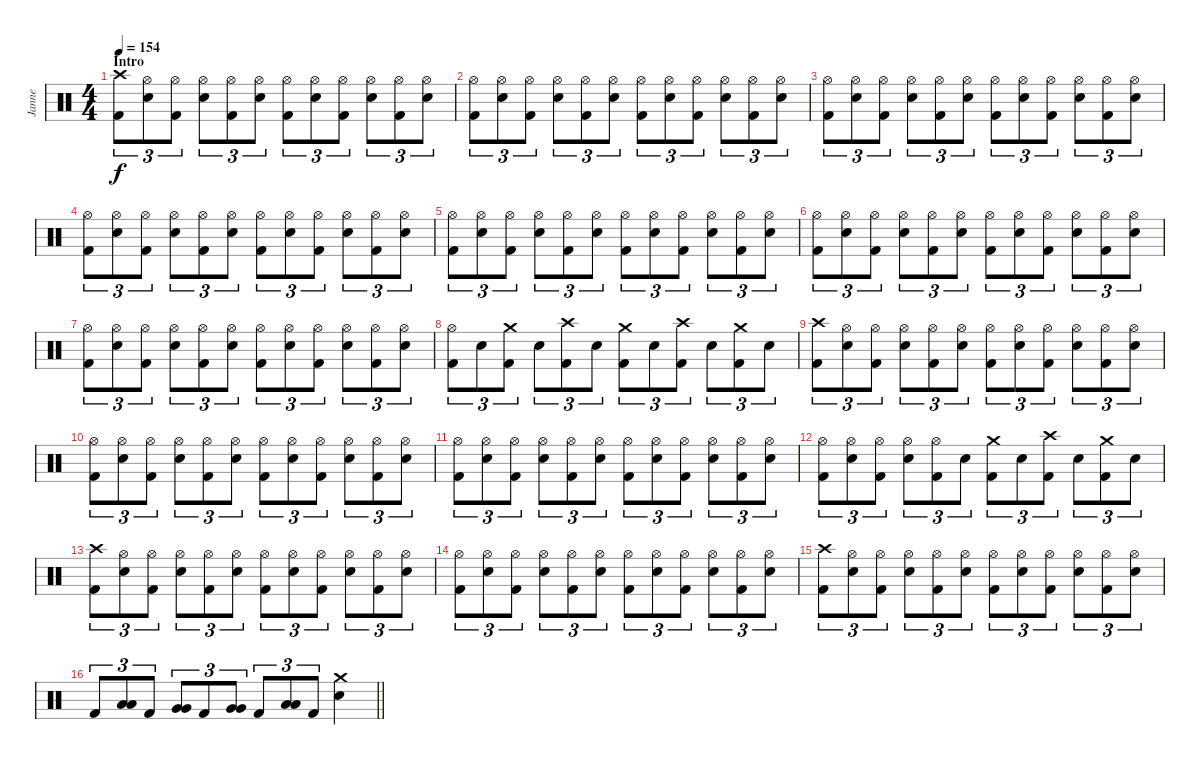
\track ("Janne" "Janne") {instrument percussion}
\staff {score}
\articulation defaults
\ts (4 4)
\section ("" "Intro")
\tempo 154
\clef neutral
\ks c
("Crash high (hit)" "Kick (hit) 2").8{tu (3 2) dy f} ("Hi-Hat (open)" "Electric Snare (hit)").8{tu (3 2)} ("Hi-Hat (open)" "Kick (hit) 2").8{tu (3 2)} ("Hi-Hat (open)" "Electric Snare (hit)").8{tu (3 2)} ("Hi-Hat (open)" "Kick (hit) 2").8{tu (3 2)} ("Hi-Hat (open)" "Electric Snare (hit)").8{tu (3 2)} ("Hi-Hat (open)" "Kick (hit) 2").8{tu (3 2)} ("Hi-Hat (open)" "Electric Snare (hit)").8{tu (3 2)} ("Hi-Hat (open)" "Kick (hit) 2").8{tu (3 2)} ("Hi-Hat (open)" "Electric Snare (hit)").8{tu (3 2)} ("Hi-Hat (open)" "Kick (hit) 2").8{tu (3 2)} ("Hi-Hat (open)" "Electric Snare (hit)").8{tu (3 2)} |
("Hi-Hat (open)" "Kick (hit) 2").8{tu (3 2)} ("Hi-Hat (open)" "Electric Snare (hit)").8{tu (3 2)} ("Hi-Hat (open)" "Kick (hit) 2").8{tu (3 2)} ("Hi-Hat (open)" "Electric Snare (hit)").8{tu (3 2)} ("Hi-Hat (open)" "Kick (hit) 2").8{tu (3 2)} ("Hi-Hat (open)" "Electric Snare (hit)").8{tu (3 2)} ("Hi-Hat (open)" "Kick (hit) 2").8{tu (3 2)} ("Hi-Hat (open)" "Electric Snare (hit)").8{tu (3 2)} ("Hi-Hat (open)" "Kick (hit) 2").8{tu (3 2)} ("Hi-Hat (open)" "Electric Snare (hit)").8{tu (3 2)} ("Hi-Hat (open)" "Kick (hit) 2").8{tu (3 2)} ("Hi-Hat (open)" "Electric Snare (hit)").8{tu (3 2)} |
("Hi-Hat (open)" "Kick (hit) 2").8{tu (3 2)} ("Hi-Hat (open)" "Electric Snare (hit)").8{tu (3 2)} ("Hi-Hat (open)" "Kick (hit) 2").8{tu (3 2)} ("Hi-Hat (open)" "Electric Snare (hit)").8{tu (3 2)} ("Hi-Hat (open)" "Kick (hit) 2").8{tu (3 2)} ("Hi-Hat (open)" "Electric Snare (hit)").8{tu (3 2)} ("Hi-Hat (open)" "Kick (hit) 2").8{tu (3 2)} ("Hi-Hat (open)" "Electric Snare (hit)").8{tu (3 2)} ("Hi-Hat (open)" "Kick (hit) 2").8{tu (3 2)} ("Hi-Hat (open)" "Electric Snare (hit)").8{tu (3 2)} ("Hi-Hat (open)" "Kick (hit) 2").8{tu (3 2)} ("Hi-Hat (open)" "Electric Snare (hit)").8{tu (3 2)} |
("Hi-Hat (open)" "Kick (hit) 2").8{tu (3 2)} ("Hi-Hat (open)" "Electric Snare (hit)").8{tu (3 2)} ("Hi-Hat (open)" "Kick (hit) 2").8{tu (3 2)} ("Hi-Hat (open)" "Electric Snare (hit)").8{tu (3 2)} ("Hi-Hat (open)" "Kick (hit) 2").8{tu (3 2)} ("Hi-Hat (open)" "Electric Snare (hit)").8{tu (3 2)} ("Hi-Hat (open)" "Kick (hit) 2").8{tu (3 2)} ("Hi-Hat (open)" "Electric Snare (hit)").8{tu (3 2)} ("Hi-Hat (open)" "Kick (hit) 2").8{tu (3 2)} ("Hi-Hat (open)" "Electric Snare (hit)").8{tu (3 2)} ("Hi-Hat (open)" "Kick (hit) 2").8{tu (3 2)} ("Hi-Hat (open)" "Electric Snare (hit)").8{tu (3 2)} |
("Hi-Hat (open)" "Kick (hit) 2").8{tu (3 2)} ("Hi-Hat (open)" "Electric Snare (hit)").8{tu (3 2)} ("Hi-Hat (open)" "Kick (hit) 2").8{tu (3 2)} ("Hi-Hat (open)" "Electric Snare (hit)").8{tu (3 2)} ("Hi-Hat (open)" "Kick (hit) 2").8{tu (3 2)} ("Hi-Hat (open)" "Electric Snare (hit)").8{tu (3 2)} ("Hi-Hat (open)" "Kick (hit) 2").8{tu (3 2)} ("Hi-Hat (open)" "Electric Snare (hit)").8{tu (3 2)} ("Hi-Hat (open)" "Kick (hit) 2").8{tu (3 2)} ("Hi-Hat (open)" "Electric Snare (hit)").8{tu (3 2)} ("Hi-Hat (open)" "Kick (hit) 2").8{tu (3 2)} ("Hi-Hat (open)" "Electric Snare (hit)").8{tu (3 2)} |
("Hi-Hat (open)" "Kick (hit) 2").8{tu (3 2)} ("Hi-Hat (open)" "Electric Snare (hit)").8{tu (3 2)} ("Hi-Hat (open)" "Kick (hit) 2").8{tu (3 2)} ("Hi-Hat (open)" "Electric Snare (hit)").8{tu (3 2)} ("Hi-Hat (open)" "Kick (hit) 2").8{tu (3 2)} ("Hi-Hat (open)" "Electric Snare (hit)").8{tu (3 2)} ("Hi-Hat (open)" "Kick (hit) 2").8{tu (3 2)} ("Hi-Hat (open)" "Electric Snare (hit)").8{tu (3 2)} ("Hi-Hat (open)" "Kick (hit) 2").8{tu (3 2)} ("Hi-Hat (open)" "Electric Snare (hit)").8{tu (3 2)} ("Hi-Hat (open)" "Kick (hit) 2").8{tu (3 2)} ("Hi-Hat (open)" "Electric Snare (hit)").8{tu (3 2)} |
("Hi-Hat (open)" "Kick (hit) 2").8{tu (3 2)} ("Hi-Hat (open)" "Electric Snare (hit)").8{tu (3 2)} ("Hi-Hat (open)" "Kick (hit) 2").8{tu (3 2)} ("Hi-Hat (open)" "Electric Snare (hit)").8{tu (3 2)} ("Hi-Hat (open)" "Kick (hit) 2").8{tu (3 2)} ("Hi-Hat (open)" "Electric Snare (hit)").8{tu (3 2)} ("Hi-Hat (open)" "Kick (hit) 2").8{tu (3 2)} ("Hi-Hat (open)" "Electric Snare (hit)").8{tu (3 2)} ("Hi-Hat (open)" "Kick (hit) 2").8{tu (3 2)} ("Hi-Hat (open)" "Electric Snare (hit)").8{tu (3 2)} ("Hi-Hat (open)" "Kick (hit) 2").8{tu (3 2)} ("Hi-Hat (open)" "Electric Snare (hit)").8{tu (3 2)} |
("Hi-Hat (open)" "Kick (hit) 2").8{tu (3 2)} "Electric Snare (hit)".8{tu (3 2)} ("Crash medium (hit)" "Kick (hit) 2").8{tu (3 2)} "Electric Snare (hit)".8{tu (3 2)} ("Crash high (hit)" "Kick (hit) 2").8{tu (3 2)} "Electric Snare (hit)".8{tu (3 2)} ("Crash medium (hit)" "Kick (hit) 2").8{tu (3 2)} "Electric Snare (hit)".8{tu (3 2)} ("Crash high (hit)" "Kick (hit) 2").8{tu (3 2)} "Electric Snare (hit)".8{tu (3 2)} ("Crash medium (hit)" "Kick (hit) 2").8{tu (3 2)} "Electric Snare (hit)".8{tu (3 2)} |
("Crash high (hit)" "Kick (hit) 2").8{tu (3 2)} ("Hi-Hat (open)" "Electric Snare (hit)").8{tu (3 2)} ("Hi-Hat (open)" "Kick (hit) 2").8{tu (3 2)} ("Hi-Hat (open)" "Electric Snare (hit)").8{tu (3 2)} ("Hi-Hat (open)" "Kick (hit) 2").8{tu (3 2)} ("Hi-Hat (open)" "Electric Snare (hit)").8{tu (3 2)} ("Hi-Hat (open)" "Kick (hit) 2").8{tu (3 2)} ("Hi-Hat (open)" "Electric Snare (hit)").8{tu (3 2)} ("Hi-Hat (open)" "Kick (hit) 2").8{tu (3 2)} ("Hi-Hat (open)" "Electric Snare (hit)").8{tu (3 2)} ("Hi-Hat (open)" "Kick (hit) 2").8{tu (3 2)} ("Hi-Hat (open)" "Electric Snare (hit)").8{tu (3 2)} |
("Hi-Hat (open)" "Kick (hit) 2").8{tu (3 2)} ("Hi-Hat (open)" "Electric Snare (hit)").8{tu (3 2)} ("Hi-Hat (open)" "Kick (hit) 2").8{tu (3 2)} ("Hi-Hat (open)" "Electric Snare (hit)").8{tu (3 2)} ("Hi-Hat (open)" "Kick (hit) 2").8{tu (3 2)} ("Hi-Hat (open)" "Electric Snare (hit)").8{tu (3 2)} ("Hi-Hat (open)" "Kick (hit) 2").8{tu (3 2)} ("Hi-Hat (open)" "Electric Snare (hit)").8{tu (3 2)} ("Hi-Hat (open)" "Kick (hit) 2").8{tu (3 2)} ("Hi-Hat (open)" "Electric Snare (hit)").8{tu (3 2)} ("Hi-Hat (open)" "Kick (hit) 2").8{tu (3 2)} ("Hi-Hat (open)" "Electric Snare (hit)").8{tu (3 2)} |
("Hi-Hat (open)" "Kick (hit) 2").8{tu (3 2)} ("Hi-Hat (open)" "Electric Snare (hit)").8{tu (3 2)} ("Hi-Hat (open)" "Kick (hit) 2").8{tu (3 2)} ("Hi-Hat (open)" "Electric Snare (hit)").8{tu (3 2)} ("Hi-Hat (open)" "Kick (hit) 2").8{tu (3 2)} ("Hi-Hat (open)" "Electric Snare (hit)").8{tu (3 2)} ("Hi-Hat (open)" "Kick (hit) 2").8{tu (3 2)} ("Hi-Hat (open)" "Electric Snare (hit)").8{tu (3 2)} ("Hi-Hat (open)" "Kick (hit) 2").8{tu (3 2)} ("Hi-Hat (open)" "Electric Snare (hit)").8{tu (3 2)} ("Hi-Hat (open)" "Kick (hit) 2").8{tu (3 2)} ("Hi-Hat (open)" "Electric Snare (hit)").8{tu (3 2)} |
("Hi-Hat (open)" "Kick (hit) 2").8{tu (3 2)} ("Hi-Hat (open)" "Electric Snare (hit)").8{tu (3 2)} ("Hi-Hat (open)" "Kick (hit) 2").8{tu (3 2)} ("Hi-Hat (open)" "Electric Snare (hit)").8{tu (3 2)} ("Hi-Hat (open)" "Kick (hit) 2").8{tu (3 2)} "Electric Snare (hit)".8{tu (3 2)} ("Crash medium (hit)" "Kick (hit) 2").8{tu (3 2)} "Electric Snare (hit)".8{tu (3 2)} ("Crash high (hit)" "Kick (hit) 2").8{tu (3 2)} "Electric Snare (hit)".8{tu (3 2)} ("Crash medium (hit)" "Kick (hit) 2").8{tu (3 2)} "Electric Snare (hit)".8{tu (3 2)} |
("Crash high (hit)" "Kick (hit) 2").8{tu (3 2)} ("Hi-Hat (open)" "Electric Snare (hit)").8{tu (3 2)} ("Hi-Hat (open)" "Kick (hit) 2").8{tu (3 2)} ("Hi-Hat (open)" "Electric Snare (hit)").8{tu (3 2)} ("Hi-Hat (open)" "Kick (hit) 2").8{tu (3 2)} ("Hi-Hat (open)" "Electric Snare (hit)").8{tu (3 2)} ("Hi-Hat (open)" "Kick (hit) 2").8{tu (3 2)} ("Hi-Hat (open)" "Electric Snare (hit)").8{tu (3 2)} ("Hi-Hat (open)" "Kick (hit) 2").8{tu (3 2)} ("Hi-Hat (open)" "Electric Snare (hit)").8{tu (3 2)} ("Hi-Hat (open)" "Kick (hit) 2").8{tu (3 2)} ("Hi-Hat (open)" "Electric Snare (hit)").8{tu (3 2)} |
("Hi-Hat (open)" "Kick (hit) 2").8{tu (3 2)} ("Hi-Hat (open)" "Electric Snare (hit)").8{tu (3 2)} ("Hi-Hat (open)" "Kick (hit) 2").8{tu (3 2)} ("Hi-Hat (open)" "Electric Snare (hit)").8{tu (3 2)} ("Hi-Hat (open)" "Kick (hit) 2").8{tu (3 2)} ("Hi-Hat (open)" "Electric Snare (hit)").8{tu (3 2)} ("Hi-Hat (open)" "Kick (hit) 2").8{tu (3 2)} ("Hi-Hat (open)" "Electric Snare (hit)").8{tu (3 2)} ("Hi-Hat (open)" "Kick (hit) 2").8{tu (3 2)} ("Hi-Hat (open)" "Electric Snare (hit)").8{tu (3 2)} ("Hi-Hat (open)" "Kick (hit) 2").8{tu (3 2)} ("Hi-Hat (open)" "Electric Snare (hit)").8{tu (3 2)} |
("Crash high (hit)" "Kick (hit) 2").8{tu (3 2)} ("Hi-Hat (open)" "Electric Snare (hit)").8{tu (3 2)} ("Hi-Hat (open)" "Kick (hit) 2").8{tu (3 2)} ("Hi-Hat (open)" "Electric Snare (hit)").8{tu (3 2)} ("Hi-Hat (open)" "Kick (hit) 2").8{tu (3 2)} ("Hi-Hat (open)" "Electric Snare (hit)").8{tu (3 2)} ("Hi-Hat (open)" "Kick (hit) 2").8{tu (3 2)} ("Hi-Hat (open)" "Electric Snare (hit)").8{tu (3 2)} ("Hi-Hat (open)" "Kick (hit) 2").8{tu (3 2)} ("Hi-Hat (open)" "Electric Snare (hit)").8{tu (3 2)} ("Hi-Hat (open)" "Kick (hit) 2").8{tu (3 2)} ("Hi-Hat (open)" "Electric Snare (hit)").8{tu (3 2)} |
\barLineRight lightlight "Kick (hit) 2".8{tu (3 2)}
("Low Tom (hit)" "Low Tom (hit)").8{tu (3 2)} "Kick (hit) 2".8{tu (3 2)} ("Very Low Tom (hit)" "Very Low Tom (hit)").8{tu (3 2)} "Kick (hit) 2".8{tu (3 2)} ("Very Low Tom (hit)" "Very Low Tom (hit)").8{tu (3 2)} "Kick (hit) 2".8{tu (3 2)} ("Low Floor Tom (hit)" "Low Floor Tom (hit)").8{tu (3 2)} "Kick (hit) 2".8{tu (3 2)} ("Crash medium (hit)" "Electric Snare (hit)").4
